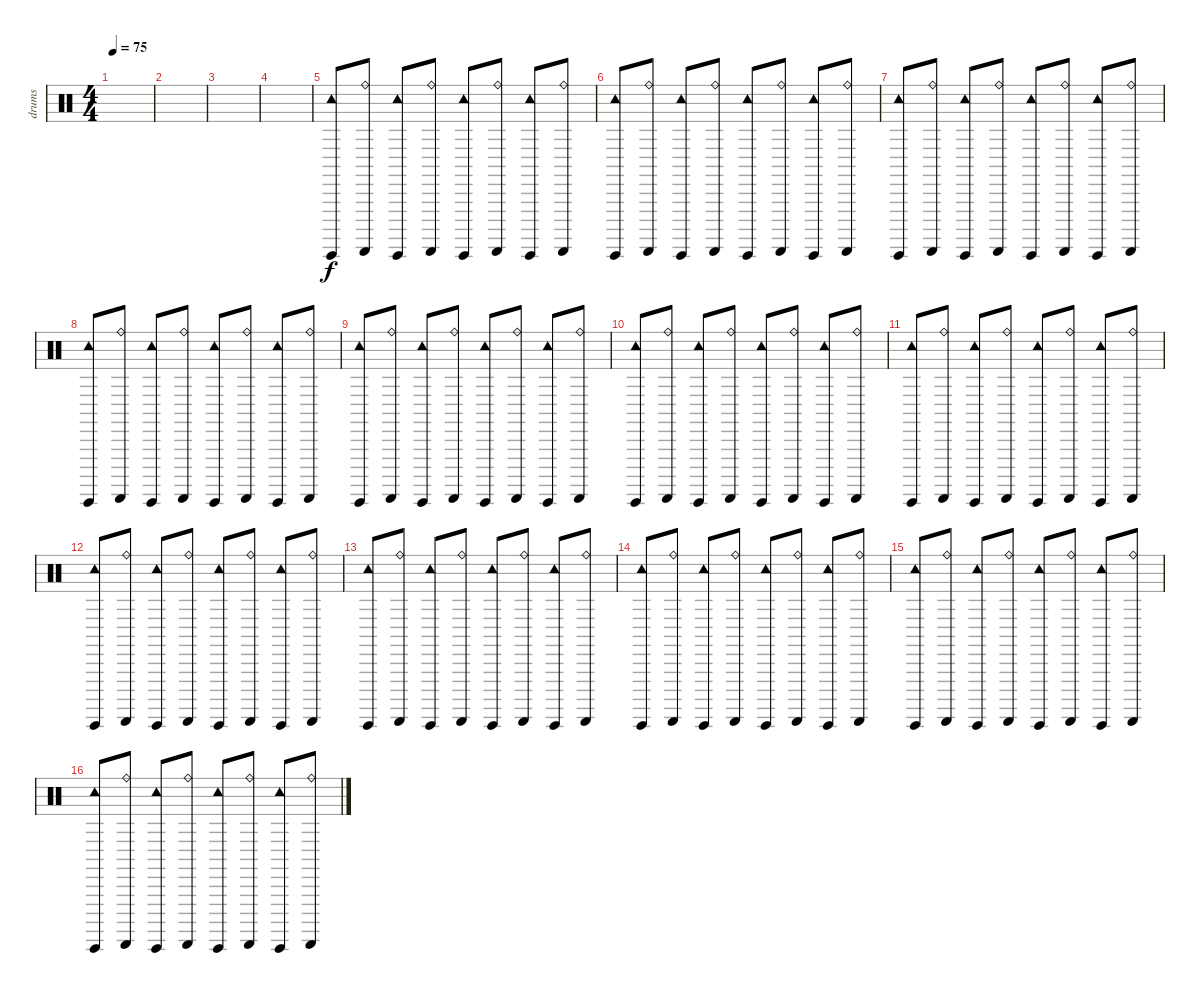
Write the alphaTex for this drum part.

\track ("drums" "drums") {instrument percussion}
\staff {score}
\articulation defaults
\ts (4 4)
\tempo 75
\clef neutral
\ks c
|
|
|
|
("Tambourine (hit)" "Guiro (hit)").8{volume 13} ("Ride (bell)" "Guiro (scrap-return)").8 ("Tambourine (hit)" "Guiro (hit)").8 ("Ride (bell)" "Guiro (scrap-return)").8 ("Tambourine (hit)" "Guiro (hit)").8 ("Ride (bell)" "Guiro (scrap-return)").8 ("Tambourine (hit)" "Guiro (hit)").8 ("Ride (bell)" "Guiro (scrap-return)").8 |
("Tambourine (hit)" "Guiro (hit)").8{volume 13} ("Ride (bell)" "Guiro (scrap-return)").8 ("Tambourine (hit)" "Guiro (hit)").8 ("Ride (bell)" "Guiro (scrap-return)").8 ("Tambourine (hit)" "Guiro (hit)").8 ("Ride (bell)" "Guiro (scrap-return)").8 ("Tambourine (hit)" "Guiro (hit)").8 ("Ride (bell)" "Guiro (scrap-return)").8 |
("Tambourine (hit)" "Guiro (hit)").8{volume 13} ("Ride (bell)" "Guiro (scrap-return)").8 ("Tambourine (hit)" "Guiro (hit)").8 ("Ride (bell)" "Guiro (scrap-return)").8 ("Tambourine (hit)" "Guiro (hit)").8 ("Ride (bell)" "Guiro (scrap-return)").8 ("Tambourine (hit)" "Guiro (hit)").8 ("Ride (bell)" "Guiro (scrap-return)").8 |
("Tambourine (hit)" "Guiro (hit)").8{volume 13} ("Ride (bell)" "Guiro (scrap-return)").8 ("Tambourine (hit)" "Guiro (hit)").8 ("Ride (bell)" "Guiro (scrap-return)").8 ("Tambourine (hit)" "Guiro (hit)").8 ("Ride (bell)" "Guiro (scrap-return)").8 ("Tambourine (hit)" "Guiro (hit)").8 ("Ride (bell)" "Guiro (scrap-return)").8 |
("Tambourine (hit)" "Guiro (hit)").8{volume 13} ("Ride (bell)" "Guiro (scrap-return)").8 ("Tambourine (hit)" "Guiro (hit)").8 ("Ride (bell)" "Guiro (scrap-return)").8 ("Tambourine (hit)" "Guiro (hit)").8 ("Ride (bell)" "Guiro (scrap-return)").8 ("Tambourine (hit)" "Guiro (hit)").8 ("Ride (bell)" "Guiro (scrap-return)").8 |
("Tambourine (hit)" "Guiro (hit)").8{volume 13} ("Ride (bell)" "Guiro (scrap-return)").8 ("Tambourine (hit)" "Guiro (hit)").8 ("Ride (bell)" "Guiro (scrap-return)").8 ("Tambourine (hit)" "Guiro (hit)").8 ("Ride (bell)" "Guiro (scrap-return)").8 ("Tambourine (hit)" "Guiro (hit)").8 ("Ride (bell)" "Guiro (scrap-return)").8 |
("Tambourine (hit)" "Guiro (hit)").8{volume 13} ("Ride (bell)" "Guiro (scrap-return)").8 ("Tambourine (hit)" "Guiro (hit)").8 ("Ride (bell)" "Guiro (scrap-return)").8 ("Tambourine (hit)" "Guiro (hit)").8 ("Ride (bell)" "Guiro (scrap-return)").8 ("Tambourine (hit)" "Guiro (hit)").8 ("Ride (bell)" "Guiro (scrap-return)").8 |
("Tambourine (hit)" "Guiro (hit)").8{volume 13} ("Ride (bell)" "Guiro (scrap-return)").8 ("Tambourine (hit)" "Guiro (hit)").8 ("Ride (bell)" "Guiro (scrap-return)").8 ("Tambourine (hit)" "Guiro (hit)").8 ("Ride (bell)" "Guiro (scrap-return)").8 ("Tambourine (hit)" "Guiro (hit)").8 ("Ride (bell)" "Guiro (scrap-return)").8 |
("Tambourine (hit)" "Guiro (hit)").8{volume 13} ("Ride (bell)" "Guiro (scrap-return)").8 ("Tambourine (hit)" "Guiro (hit)").8 ("Ride (bell)" "Guiro (scrap-return)").8 ("Tambourine (hit)" "Guiro (hit)").8 ("Ride (bell)" "Guiro (scrap-return)").8 ("Tambourine (hit)" "Guiro (hit)").8 ("Ride (bell)" "Guiro (scrap-return)").8 |
("Tambourine (hit)" "Guiro (hit)").8{volume 13} ("Ride (bell)" "Guiro (scrap-return)").8 ("Tambourine (hit)" "Guiro (hit)").8 ("Ride (bell)" "Guiro (scrap-return)").8 ("Tambourine (hit)" "Guiro (hit)").8 ("Ride (bell)" "Guiro (scrap-return)").8 ("Tambourine (hit)" "Guiro (hit)").8 ("Ride (bell)" "Guiro (scrap-return)").8 |
("Tambourine (hit)" "Guiro (hit)").8{volume 13} ("Ride (bell)" "Guiro (scrap-return)").8 ("Tambourine (hit)" "Guiro (hit)").8 ("Ride (bell)" "Guiro (scrap-return)").8 ("Tambourine (hit)" "Guiro (hit)").8 ("Ride (bell)" "Guiro (scrap-return)").8 ("Tambourine (hit)" "Guiro (hit)").8 ("Ride (bell)" "Guiro (scrap-return)").8 |
("Tambourine (hit)" "Guiro (hit)").8{volume 13} ("Ride (bell)" "Guiro (scrap-return)").8 ("Tambourine (hit)" "Guiro (hit)").8 ("Ride (bell)" "Guiro (scrap-return)").8 ("Tambourine (hit)" "Guiro (hit)").8 ("Ride (bell)" "Guiro (scrap-return)").8 ("Tambourine (hit)" "Guiro (hit)").8 ("Ride (bell)" "Guiro (scrap-return)").8
